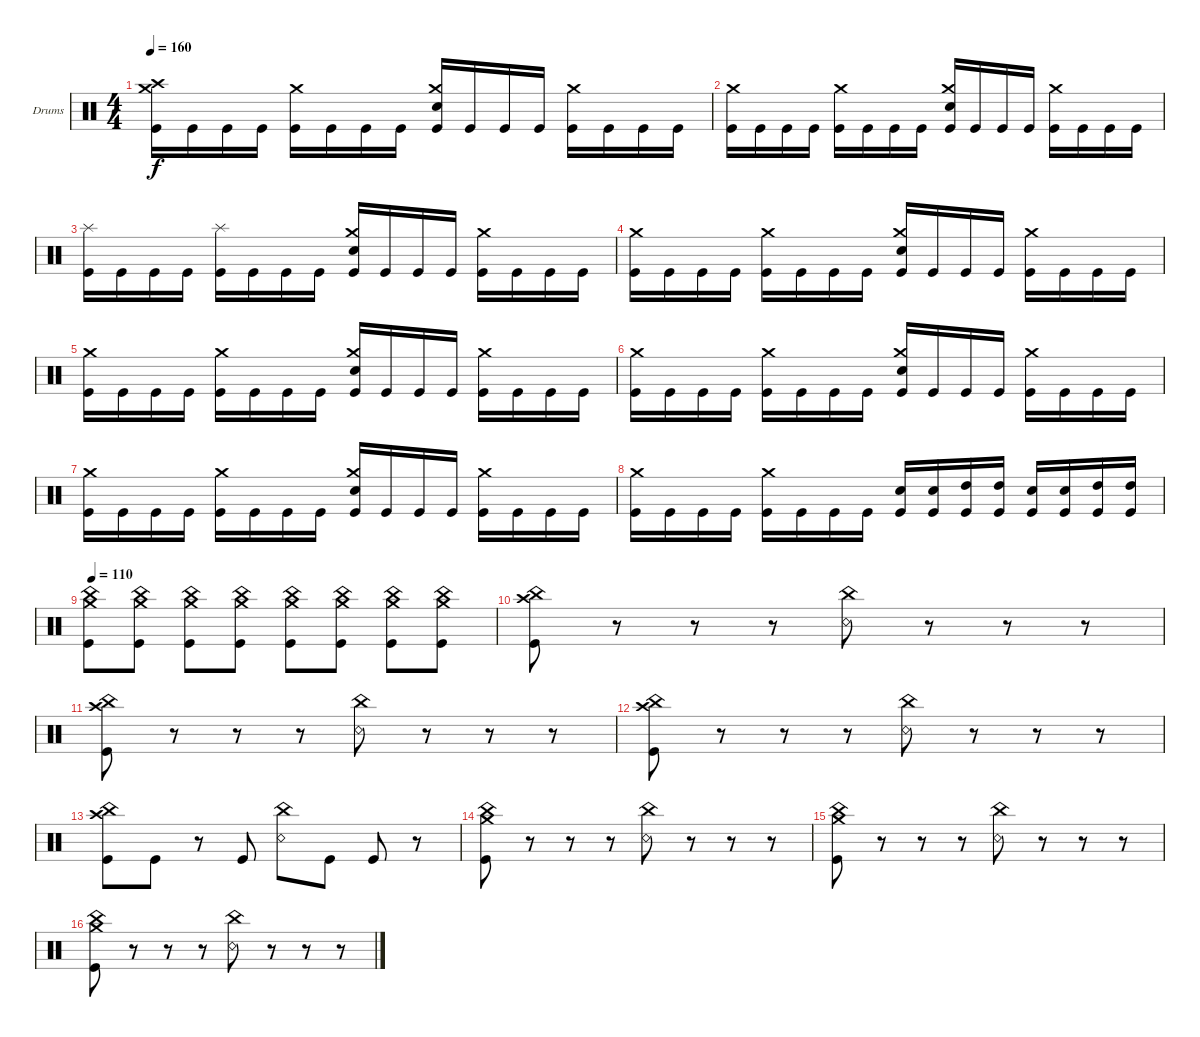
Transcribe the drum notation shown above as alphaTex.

\defaultSystemsLayout 4
\bracketExtendMode groupsimilarinstruments
\firstSystemTrackNameOrientation horizontal
\otherSystemsTrackNameOrientation horizontal
\track ("Drumkit" "Drums") {instrument percussion}
\staff {score}
\articulation defaults
\ts (4 4)
\tempo 160
\clef neutral
\ks c
("Kick (hit)" "Crash medium (hit)" "Crash high (hit)").16{dy f} "Kick (hit)".16 "Kick (hit)".16 "Kick (hit)".16 ("Kick (hit)" "Crash medium (hit)").16 "Kick (hit)".16 "Kick (hit)".16 "Kick (hit)".16 ("Kick (hit)" "Snare (hit) 2" "Crash medium (hit)").16 "Kick (hit)".16 "Kick (hit)".16 "Kick (hit)".16 ("Kick (hit)" "Crash medium (hit)").16 "Kick (hit)".16 "Kick (hit)".16 "Kick (hit)".16 |
("Kick (hit)" "Crash medium (hit)").16 "Kick (hit)".16 "Kick (hit)".16 "Kick (hit)".16 ("Kick (hit)" "Crash medium (hit)").16 "Kick (hit)".16 "Kick (hit)".16 "Kick (hit)".16 ("Kick (hit)" "Snare (hit) 2" "Crash medium (hit)").16 "Kick (hit)".16 "Kick (hit)".16 "Kick (hit)".16 ("Kick (hit)" "Crash medium (hit)").16 "Kick (hit)".16 "Kick (hit)".16 "Kick (hit)".16 |
("Kick (hit)" "Splash (hit)").16 "Kick (hit)".16 "Kick (hit)".16 "Kick (hit)".16 ("Kick (hit)" "Splash (hit)").16 "Kick (hit)".16 "Kick (hit)".16 "Kick (hit)".16 ("Kick (hit)" "Snare (hit) 2" "Crash medium (hit)").16 "Kick (hit)".16 "Kick (hit)".16 "Kick (hit)".16 ("Kick (hit)" "Crash medium (hit)").16 "Kick (hit)".16 "Kick (hit)".16 "Kick (hit)".16 |
("Kick (hit)" "Crash medium (hit)").16 "Kick (hit)".16 "Kick (hit)".16 "Kick (hit)".16 ("Kick (hit)" "Crash medium (hit)").16 "Kick (hit)".16 "Kick (hit)".16 "Kick (hit)".16 ("Kick (hit)" "Snare (hit) 2" "Crash medium (hit)").16 "Kick (hit)".16 "Kick (hit)".16 "Kick (hit)".16 ("Kick (hit)" "Crash medium (hit)").16 "Kick (hit)".16 "Kick (hit)".16 "Kick (hit)".16 |
("Kick (hit)" "Crash medium (hit)").16 "Kick (hit)".16 "Kick (hit)".16 "Kick (hit)".16 ("Kick (hit)" "Crash medium (hit)").16 "Kick (hit)".16 "Kick (hit)".16 "Kick (hit)".16 ("Kick (hit)" "Snare (hit) 2" "Crash medium (hit)").16 "Kick (hit)".16 "Kick (hit)".16 "Kick (hit)".16 ("Kick (hit)" "Crash medium (hit)").16 "Kick (hit)".16 "Kick (hit)".16 "Kick (hit)".16 |
("Kick (hit)" "Crash medium (hit)").16 "Kick (hit)".16 "Kick (hit)".16 "Kick (hit)".16 ("Kick (hit)" "Crash medium (hit)").16 "Kick (hit)".16 "Kick (hit)".16 "Kick (hit)".16 ("Kick (hit)" "Snare (hit) 2" "Crash medium (hit)").16 "Kick (hit)".16 "Kick (hit)".16 "Kick (hit)".16 ("Kick (hit)" "Crash medium (hit)").16 "Kick (hit)".16 "Kick (hit)".16 "Kick (hit)".16 |
("Kick (hit)" "Crash medium (hit)").16 "Kick (hit)".16 "Kick (hit)".16 "Kick (hit)".16 ("Kick (hit)" "Crash medium (hit)").16 "Kick (hit)".16 "Kick (hit)".16 "Kick (hit)".16 ("Kick (hit)" "Snare (hit) 2" "Crash medium (hit)").16 "Kick (hit)".16 "Kick (hit)".16 "Kick (hit)".16 ("Kick (hit)" "Crash medium (hit)").16 "Kick (hit)".16 "Kick (hit)".16 "Kick (hit)".16 |
("Kick (hit)" "Crash medium (hit)").16 "Kick (hit)".16 "Kick (hit)".16 "Kick (hit)".16 ("Kick (hit)" "Crash medium (hit)").16 "Kick (hit)".16 "Kick (hit)".16 "Kick (hit)".16 ("Kick (hit)" "Snare (hit) 2").16 ("Kick (hit)" "Snare (hit) 2").16 ("Kick (hit)" "High Tom (hit)").16 ("Kick (hit)" "High Tom (hit)").16 ("Kick (hit)" "Snare (hit) 2").16 ("Kick (hit)" "Snare (hit) 2").16 ("Kick (hit)" "High Tom (hit)").16 ("Kick (hit)" "High Tom (hit)").16 |
\tempo 110
("Kick (hit)" "Crash medium (hit)" "China (hit)").8 ("Kick (hit)" "Crash medium (hit)" "China (hit)").8 ("Kick (hit)" "Crash medium (hit)" "China (hit)").8 ("Kick (hit)" "Crash medium (hit)" "China (hit)").8 ("Kick (hit)" "Crash medium (hit)" "China (hit)").8 ("Kick (hit)" "Crash medium (hit)" "China (hit)").8 ("Kick (hit)" "Crash medium (hit)" "China (hit)").8 ("Kick (hit)" "Crash medium (hit)" "China (hit)").8 |
("China (hit)" "Kick (hit)" "Crash high (hit)").8 r.8 r.8 r.8 ("Snare (rim shot)" "China (hit)").8 r.8 r.8 r.8 |
("China (hit)" "Kick (hit)" "Crash high (hit)").8 r.8 r.8 r.8 ("Snare (rim shot)" "China (hit)").8 r.8 r.8 r.8 |
("China (hit)" "Kick (hit)" "Crash high (hit)").8 r.8 r.8 r.8 ("Snare (rim shot)" "China (hit)").8 r.8 r.8 r.8 |
("China (hit)" "Kick (hit)" "Crash high (hit)").8 "Kick (hit)".8 r.8 "Kick (hit)".8 ("Snare (rim shot)" "China (hit)").8 "Kick (hit)".8 "Kick (hit)".8 r.8 |
("China (hit)" "Kick (hit)" "Crash medium (hit)").8 r.8 r.8 r.8 ("Snare (rim shot)" "China (hit)").8 r.8 r.8 r.8 |
("China (hit)" "Kick (hit)" "Crash medium (hit)").8 r.8 r.8 r.8 ("Snare (rim shot)" "China (hit)").8 r.8 r.8 r.8 |
("China (hit)" "Kick (hit)" "Crash medium (hit)").8 r.8 r.8 r.8 ("Snare (rim shot)" "China (hit)").8 r.8 r.8 r.8
